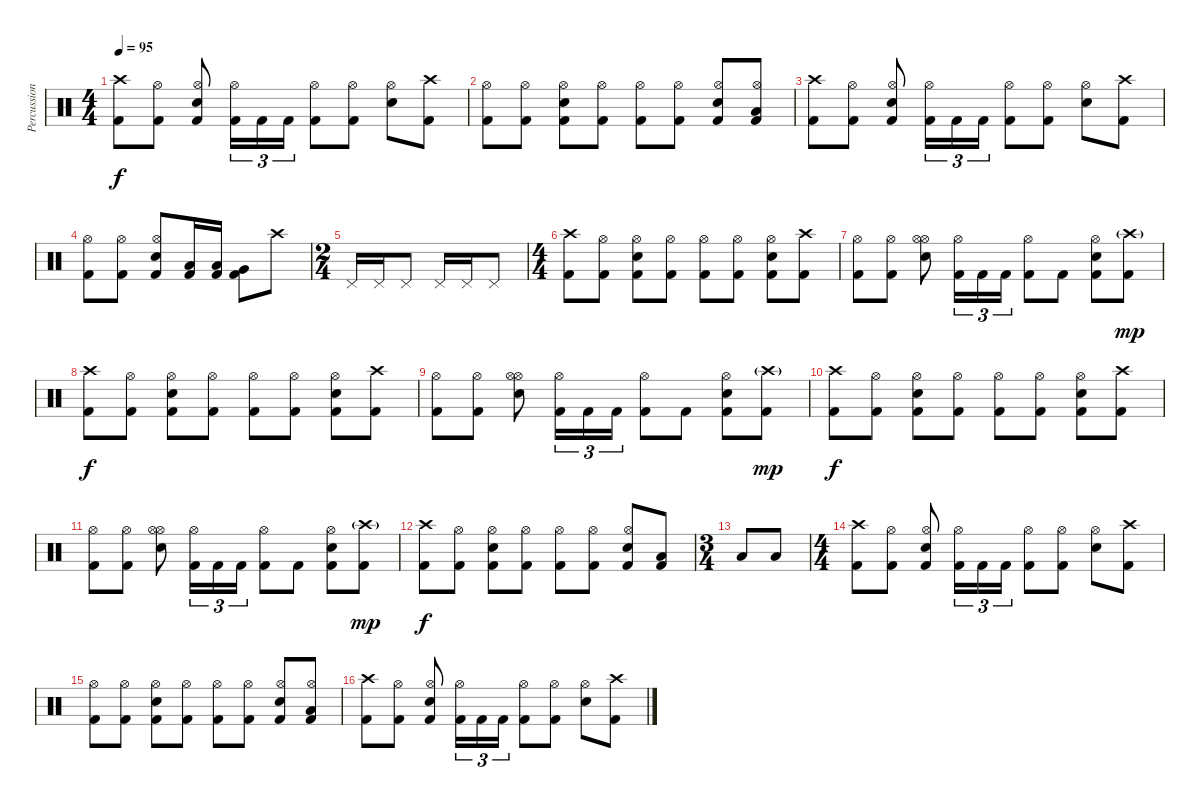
\track ("Percussion" "Percussion") {instrument percussion}
\staff {score}
\articulation defaults
\ts (4 4)
\tempo 95
\clef neutral
\ks c
("Crash high (hit)" "Kick (hit) 2").8{dy f} ("Hi-Hat (open)" "Kick (hit) 2").8 ("Hi-Hat (open)" "Snare (hit) 2" "Kick (hit) 2").8 ("Hi-Hat (open)" "Kick (hit) 2").16{tu (3 2)} "Kick (hit) 2".16{tu (3 2)} "Kick (hit) 2".16{tu (3 2)} ("Hi-Hat (open)" "Kick (hit) 2").8 ("Hi-Hat (open)" "Kick (hit) 2").8 ("Hi-Hat (open)" "Snare (hit) 2").8 ("Crash high (hit)" "Kick (hit) 2").8 |
("Hi-Hat (open)" "Kick (hit) 2").8 ("Hi-Hat (open)" "Kick (hit) 2").8 ("Hi-Hat (open)" "Snare (hit) 2" "Kick (hit) 2").8 ("Hi-Hat (open)" "Kick (hit) 2").8 ("Hi-Hat (open)" "Kick (hit) 2").8 ("Hi-Hat (open)" "Kick (hit) 2").8 ("Hi-Hat (open)" "Snare (hit) 2" "Kick (hit) 2").8 ("Hi-Hat (open)" "Low Tom (hit)" "Kick (hit) 2").8 |
("Crash high (hit)" "Kick (hit) 2").8 ("Hi-Hat (open)" "Kick (hit) 2").8 ("Hi-Hat (open)" "Snare (hit) 2" "Kick (hit) 2").8 ("Hi-Hat (open)" "Kick (hit) 2").16{tu (3 2)} "Kick (hit) 2".16{tu (3 2)} "Kick (hit) 2".16{tu (3 2)} ("Hi-Hat (open)" "Kick (hit) 2").8 ("Hi-Hat (open)" "Kick (hit) 2").8 ("Hi-Hat (open)" "Snare (hit) 2").8 ("Crash high (hit)" "Kick (hit) 2").8 |
("Hi-Hat (open)" "Kick (hit) 2").8 ("Hi-Hat (open)" "Kick (hit) 2").8 ("Hi-Hat (open)" "Snare (hit) 2" "Kick (hit) 2").8 ("Low Tom (hit)" "Kick (hit) 2").16 ("Low Tom (hit)" "Kick (hit) 2").16 ("Very Low Tom (hit)" "Kick (hit) 2").8 "Crash high (hit)".8 |
\ts (2 4)
"Pedal Hi-Hat (hit)".16 "Pedal Hi-Hat (hit)".16 "Pedal Hi-Hat (hit)".8 "Pedal Hi-Hat (hit)".16 "Pedal Hi-Hat (hit)".16 "Pedal Hi-Hat (hit)".8 |
\ts (4 4)
("Crash high (hit)" "Kick (hit) 2").8 ("Hi-Hat (open)" "Kick (hit) 2").8 ("Hi-Hat (open)" "Snare (hit) 2" "Kick (hit) 2").8 ("Hi-Hat (open)" "Kick (hit) 2").8 ("Hi-Hat (open)" "Kick (hit) 2").8 ("Hi-Hat (open)" "Kick (hit) 2").8 ("Hi-Hat (open)" "Snare (hit) 2" "Kick (hit) 2").8 ("Crash high (hit)" "Kick (hit) 2").8 |
("Hi-Hat (open)" "Kick (hit) 2").8 ("Hi-Hat (open)" "Kick (hit) 2").8 ("Hi-Hat (open)" "Snare (hit) 2" "Hi-Hat (open)").8 ("Hi-Hat (open)" "Kick (hit) 2").16{tu (3 2)} "Kick (hit) 2".16{tu (3 2)} "Kick (hit) 2".16{tu (3 2)} ("Hi-Hat (open)" "Kick (hit) 2").8 "Kick (hit) 2".8 ("Hi-Hat (open)" "Snare (hit) 2" "Kick (hit) 2").8 ("Crash high (hit)"{g} "Kick (hit) 2").8{dy mp} |
("Crash high (hit)" "Kick (hit) 2").8{dy f} ("Hi-Hat (open)" "Kick (hit) 2").8 ("Hi-Hat (open)" "Snare (hit) 2" "Kick (hit) 2").8 ("Hi-Hat (open)" "Kick (hit) 2").8 ("Hi-Hat (open)" "Kick (hit) 2").8 ("Hi-Hat (open)" "Kick (hit) 2").8 ("Hi-Hat (open)" "Snare (hit) 2" "Kick (hit) 2").8 ("Crash high (hit)" "Kick (hit) 2").8 |
("Hi-Hat (open)" "Kick (hit) 2").8 ("Hi-Hat (open)" "Kick (hit) 2").8 ("Hi-Hat (open)" "Snare (hit) 2" "Hi-Hat (open)").8 ("Hi-Hat (open)" "Kick (hit) 2").16{tu (3 2)} "Kick (hit) 2".16{tu (3 2)} "Kick (hit) 2".16{tu (3 2)} ("Hi-Hat (open)" "Kick (hit) 2").8 "Kick (hit) 2".8 ("Hi-Hat (open)" "Snare (hit) 2" "Kick (hit) 2").8 ("Crash high (hit)"{g} "Kick (hit) 2").8{dy mp} |
("Crash high (hit)" "Kick (hit) 2").8{dy f} ("Hi-Hat (open)" "Kick (hit) 2").8 ("Hi-Hat (open)" "Snare (hit) 2" "Kick (hit) 2").8 ("Hi-Hat (open)" "Kick (hit) 2").8 ("Hi-Hat (open)" "Kick (hit) 2").8 ("Hi-Hat (open)" "Kick (hit) 2").8 ("Hi-Hat (open)" "Snare (hit) 2" "Kick (hit) 2").8 ("Crash high (hit)" "Kick (hit) 2").8 |
("Hi-Hat (open)" "Kick (hit) 2").8 ("Hi-Hat (open)" "Kick (hit) 2").8 ("Hi-Hat (open)" "Snare (hit) 2" "Hi-Hat (open)").8 ("Hi-Hat (open)" "Kick (hit) 2").16{tu (3 2)} "Kick (hit) 2".16{tu (3 2)} "Kick (hit) 2".16{tu (3 2)} ("Hi-Hat (open)" "Kick (hit) 2").8 "Kick (hit) 2".8 ("Hi-Hat (open)" "Snare (hit) 2" "Kick (hit) 2").8 ("Crash high (hit)"{g} "Kick (hit) 2").8{dy mp} |
("Crash high (hit)" "Kick (hit) 2").8{dy f} ("Hi-Hat (open)" "Kick (hit) 2").8 ("Hi-Hat (open)" "Snare (hit) 2" "Kick (hit) 2").8 ("Hi-Hat (open)" "Kick (hit) 2").8 ("Hi-Hat (open)" "Kick (hit) 2").8 ("Hi-Hat (open)" "Kick (hit) 2").8 ("Hi-Hat (open)" "Snare (hit) 2" "Kick (hit) 2").8 ("Low Tom (hit)" "Kick (hit) 2").8 |
\ts (3 4)
"Low Tom (hit)".8 "Low Tom (hit)".8 |
\ts (4 4)
("Crash high (hit)" "Kick (hit) 2").8 ("Hi-Hat (open)" "Kick (hit) 2").8 ("Hi-Hat (open)" "Snare (hit) 2" "Kick (hit) 2").8 ("Hi-Hat (open)" "Kick (hit) 2").16{tu (3 2)} "Kick (hit) 2".16{tu (3 2)} "Kick (hit) 2".16{tu (3 2)} ("Hi-Hat (open)" "Kick (hit) 2").8 ("Hi-Hat (open)" "Kick (hit) 2").8 ("Hi-Hat (open)" "Snare (hit) 2").8 ("Crash high (hit)" "Kick (hit) 2").8 |
("Hi-Hat (open)" "Kick (hit) 2").8 ("Hi-Hat (open)" "Kick (hit) 2").8 ("Hi-Hat (open)" "Snare (hit) 2" "Kick (hit) 2").8 ("Hi-Hat (open)" "Kick (hit) 2").8 ("Hi-Hat (open)" "Kick (hit) 2").8 ("Hi-Hat (open)" "Kick (hit) 2").8 ("Hi-Hat (open)" "Snare (hit) 2" "Kick (hit) 2").8 ("Hi-Hat (open)" "Low Tom (hit)" "Kick (hit) 2").8 |
("Crash high (hit)" "Kick (hit) 2").8 ("Hi-Hat (open)" "Kick (hit) 2").8 ("Hi-Hat (open)" "Snare (hit) 2" "Kick (hit) 2").8 ("Hi-Hat (open)" "Kick (hit) 2").16{tu (3 2)} "Kick (hit) 2".16{tu (3 2)} "Kick (hit) 2".16{tu (3 2)} ("Hi-Hat (open)" "Kick (hit) 2").8 ("Hi-Hat (open)" "Kick (hit) 2").8 ("Hi-Hat (open)" "Snare (hit) 2").8 ("Crash high (hit)" "Kick (hit) 2").8
